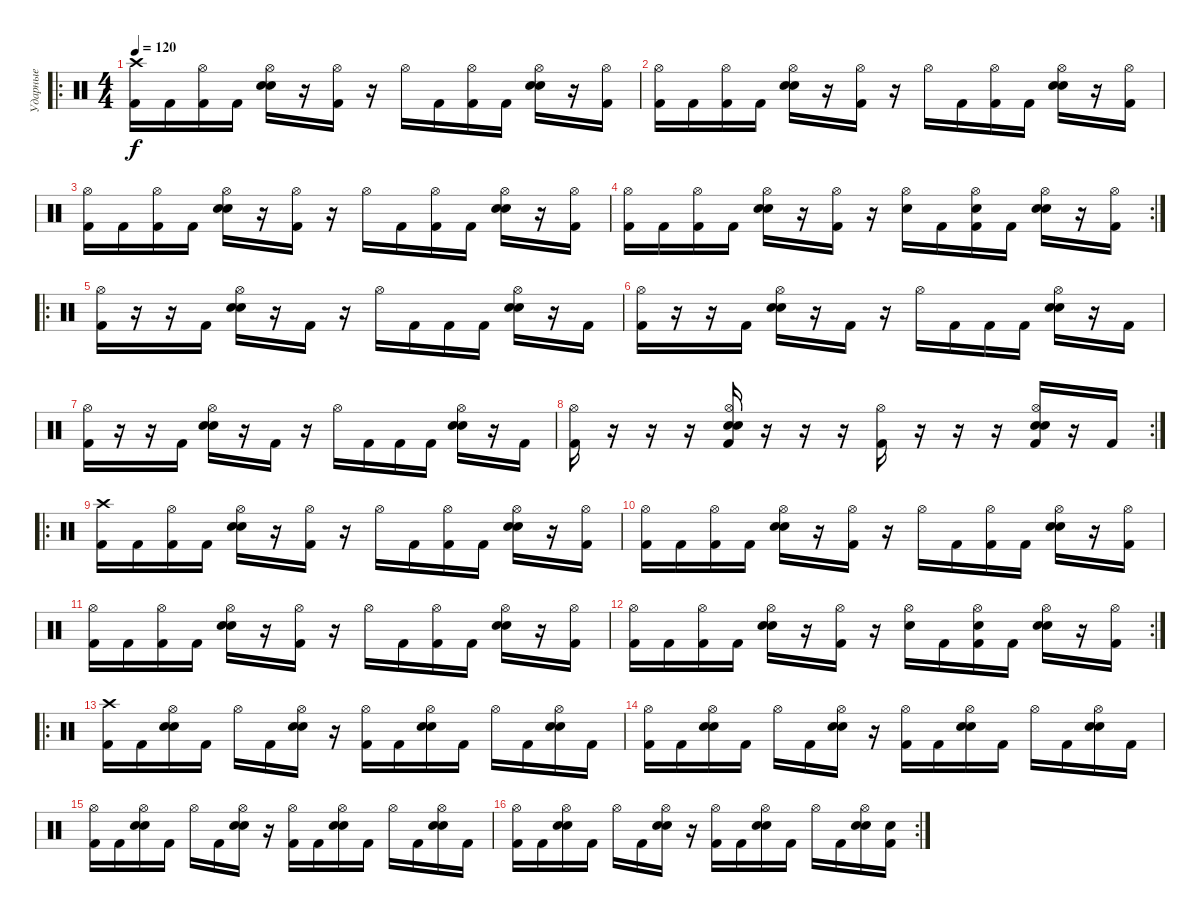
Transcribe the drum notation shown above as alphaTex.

\track ("Ударные" "Ударные") {instrument percussion}
\staff {score}
\articulation defaults
\ro
\ts (4 4)
\tempo 120
\clef neutral
\ks c
("Crash high (hit)" "Kick (hit) 2").16{dy f} "Kick (hit) 2".16 ("Hi-Hat (open)" "Kick (hit) 2").16 "Kick (hit) 2".16 ("Hi-Hat (open)" "Electric Snare (hit)" "Snare (hit) 2").16 r.16 ("Hi-Hat (open)" "Kick (hit) 2").16 r.16 "Hi-Hat (open)".16 "Kick (hit) 2".16 ("Hi-Hat (open)" "Kick (hit) 2").16 "Kick (hit) 2".16 ("Hi-Hat (open)" "Electric Snare (hit)" "Snare (hit) 2").16 r.16 ("Hi-Hat (open)" "Kick (hit) 2").16 |
("Hi-Hat (open)" "Kick (hit) 2").16 "Kick (hit) 2".16 ("Hi-Hat (open)" "Kick (hit) 2").16 "Kick (hit) 2".16 ("Hi-Hat (open)" "Electric Snare (hit)" "Snare (hit) 2").16 r.16 ("Hi-Hat (open)" "Kick (hit) 2").16 r.16 "Hi-Hat (open)".16 "Kick (hit) 2".16 ("Hi-Hat (open)" "Kick (hit) 2").16 "Kick (hit) 2".16 ("Hi-Hat (open)" "Electric Snare (hit)" "Snare (hit) 2").16 r.16 ("Hi-Hat (open)" "Kick (hit) 2").16 |
("Hi-Hat (open)" "Kick (hit) 2").16 "Kick (hit) 2".16 ("Hi-Hat (open)" "Kick (hit) 2").16 "Kick (hit) 2".16 ("Hi-Hat (open)" "Electric Snare (hit)" "Snare (hit) 2").16 r.16 ("Hi-Hat (open)" "Kick (hit) 2").16 r.16 "Hi-Hat (open)".16 "Kick (hit) 2".16 ("Hi-Hat (open)" "Kick (hit) 2").16 "Kick (hit) 2".16 ("Hi-Hat (open)" "Electric Snare (hit)" "Snare (hit) 2").16 r.16 ("Hi-Hat (open)" "Kick (hit) 2").16 |
\rc 2
("Hi-Hat (open)" "Kick (hit) 2").16 "Kick (hit) 2".16 ("Hi-Hat (open)" "Kick (hit) 2").16 "Kick (hit) 2".16 ("Hi-Hat (open)" "Electric Snare (hit)" "Snare (hit) 2").16 r.16 ("Hi-Hat (open)" "Kick (hit) 2").16 r.16 ("Hi-Hat (open)" "Electric Snare (hit)").16 "Kick (hit) 2".16 ("Hi-Hat (open)" "Kick (hit) 2" "Electric Snare (hit)").16 "Kick (hit) 2".16 ("Hi-Hat (open)" "Electric Snare (hit)" "Snare (hit) 2").16 r.16 ("Hi-Hat (open)" "Kick (hit) 2").16 |
\ro
("Hi-Hat (open)" "Kick (hit) 2").16 r.16 r.16 "Kick (hit) 2".16 ("Hi-Hat (open)" "Electric Snare (hit)" "Snare (hit) 2").16 r.16 "Kick (hit) 2".16 r.16 "Hi-Hat (open)".16 "Kick (hit) 2".16 "Kick (hit) 2".16 "Kick (hit) 2".16 ("Hi-Hat (open)" "Electric Snare (hit)" "Snare (hit) 2").16 r.16 "Kick (hit) 2".16 |
("Hi-Hat (open)" "Kick (hit) 2").16 r.16 r.16 "Kick (hit) 2".16 ("Hi-Hat (open)" "Electric Snare (hit)" "Snare (hit) 2").16 r.16 "Kick (hit) 2".16 r.16 "Hi-Hat (open)".16 "Kick (hit) 2".16 "Kick (hit) 2".16 "Kick (hit) 2".16 ("Hi-Hat (open)" "Electric Snare (hit)" "Snare (hit) 2").16 r.16 "Kick (hit) 2".16 |
("Hi-Hat (open)" "Kick (hit) 2").16 r.16 r.16 "Kick (hit) 2".16 ("Hi-Hat (open)" "Electric Snare (hit)" "Snare (hit) 2").16 r.16 "Kick (hit) 2".16 r.16 "Hi-Hat (open)".16 "Kick (hit) 2".16 "Kick (hit) 2".16 "Kick (hit) 2".16 ("Hi-Hat (open)" "Electric Snare (hit)" "Snare (hit) 2").16 r.16 "Kick (hit) 2".16 |
\rc 2
("Hi-Hat (open)" "Kick (hit) 2").16 r.16 r.16 r.16 ("Hi-Hat (open)" "Electric Snare (hit)" "Snare (hit) 2" "Kick (hit) 2").16 r.16 r.16 r.16 ("Hi-Hat (open)" "Kick (hit) 2").16 r.16 r.16 r.16 ("Hi-Hat (open)" "Electric Snare (hit)" "Snare (hit) 2" "Kick (hit) 2").16 r.16 "Kick (hit) 2".16 |
\ro
("Crash high (hit)" "Kick (hit) 2").16 "Kick (hit) 2".16 ("Hi-Hat (open)" "Kick (hit) 2").16 "Kick (hit) 2".16 ("Hi-Hat (open)" "Electric Snare (hit)" "Snare (hit) 2").16 r.16 ("Hi-Hat (open)" "Kick (hit) 2").16 r.16 "Hi-Hat (open)".16 "Kick (hit) 2".16 ("Hi-Hat (open)" "Kick (hit) 2").16 "Kick (hit) 2".16 ("Hi-Hat (open)" "Electric Snare (hit)" "Snare (hit) 2").16 r.16 ("Hi-Hat (open)" "Kick (hit) 2").16 |
("Hi-Hat (open)" "Kick (hit) 2").16 "Kick (hit) 2".16 ("Hi-Hat (open)" "Kick (hit) 2").16 "Kick (hit) 2".16 ("Hi-Hat (open)" "Electric Snare (hit)" "Snare (hit) 2").16 r.16 ("Hi-Hat (open)" "Kick (hit) 2").16 r.16 "Hi-Hat (open)".16 "Kick (hit) 2".16 ("Hi-Hat (open)" "Kick (hit) 2").16 "Kick (hit) 2".16 ("Hi-Hat (open)" "Electric Snare (hit)" "Snare (hit) 2").16 r.16 ("Hi-Hat (open)" "Kick (hit) 2").16 |
("Hi-Hat (open)" "Kick (hit) 2").16 "Kick (hit) 2".16 ("Hi-Hat (open)" "Kick (hit) 2").16 "Kick (hit) 2".16 ("Hi-Hat (open)" "Electric Snare (hit)" "Snare (hit) 2").16 r.16 ("Hi-Hat (open)" "Kick (hit) 2").16 r.16 "Hi-Hat (open)".16 "Kick (hit) 2".16 ("Hi-Hat (open)" "Kick (hit) 2").16 "Kick (hit) 2".16 ("Hi-Hat (open)" "Electric Snare (hit)" "Snare (hit) 2").16 r.16 ("Hi-Hat (open)" "Kick (hit) 2").16 |
\rc 2
("Hi-Hat (open)" "Kick (hit) 2").16 "Kick (hit) 2".16 ("Hi-Hat (open)" "Kick (hit) 2").16 "Kick (hit) 2".16 ("Hi-Hat (open)" "Electric Snare (hit)" "Snare (hit) 2").16 r.16 ("Hi-Hat (open)" "Kick (hit) 2").16 r.16 ("Hi-Hat (open)" "Electric Snare (hit)").16 "Kick (hit) 2".16 ("Hi-Hat (open)" "Kick (hit) 2" "Electric Snare (hit)").16 "Kick (hit) 2".16 ("Hi-Hat (open)" "Electric Snare (hit)" "Snare (hit) 2").16 r.16 ("Hi-Hat (open)" "Kick (hit) 2").16 |
\ro
("Crash high (hit)" "Kick (hit) 2").16 "Kick (hit) 2".16 ("Hi-Hat (open)" "Electric Snare (hit)" "Snare (hit) 2").16 "Kick (hit) 2".16 "Hi-Hat (open)".16 "Kick (hit) 2".16 ("Hi-Hat (open)" "Electric Snare (hit)" "Snare (hit) 2").16 r.16 ("Hi-Hat (open)" "Kick (hit) 2").16 "Kick (hit) 2".16 ("Hi-Hat (open)" "Electric Snare (hit)" "Snare (hit) 2").16 "Kick (hit) 2".16 "Hi-Hat (open)".16 "Kick (hit) 2".16 ("Hi-Hat (open)" "Electric Snare (hit)" "Snare (hit) 2").16 "Kick (hit) 2".16 |
("Hi-Hat (open)" "Kick (hit) 2").16 "Kick (hit) 2".16 ("Hi-Hat (open)" "Electric Snare (hit)" "Snare (hit) 2").16 "Kick (hit) 2".16 "Hi-Hat (open)".16 "Kick (hit) 2".16 ("Hi-Hat (open)" "Electric Snare (hit)" "Snare (hit) 2").16 r.16 ("Hi-Hat (open)" "Kick (hit) 2").16 "Kick (hit) 2".16 ("Hi-Hat (open)" "Electric Snare (hit)" "Snare (hit) 2").16 "Kick (hit) 2".16 "Hi-Hat (open)".16 "Kick (hit) 2".16 ("Hi-Hat (open)" "Electric Snare (hit)" "Snare (hit) 2").16 "Kick (hit) 2".16 |
("Hi-Hat (open)" "Kick (hit) 2").16 "Kick (hit) 2".16 ("Hi-Hat (open)" "Electric Snare (hit)" "Snare (hit) 2").16 "Kick (hit) 2".16 "Hi-Hat (open)".16 "Kick (hit) 2".16 ("Hi-Hat (open)" "Electric Snare (hit)" "Snare (hit) 2").16 r.16 ("Hi-Hat (open)" "Kick (hit) 2").16 "Kick (hit) 2".16 ("Hi-Hat (open)" "Electric Snare (hit)" "Snare (hit) 2").16 "Kick (hit) 2".16 "Hi-Hat (open)".16 "Kick (hit) 2".16 ("Hi-Hat (open)" "Electric Snare (hit)" "Snare (hit) 2").16 "Kick (hit) 2".16 |
\rc 2
("Hi-Hat (open)" "Kick (hit) 2").16 "Kick (hit) 2".16 ("Hi-Hat (open)" "Electric Snare (hit)" "Snare (hit) 2").16 "Kick (hit) 2".16 "Hi-Hat (open)".16 "Kick (hit) 2".16 ("Hi-Hat (open)" "Electric Snare (hit)" "Snare (hit) 2").16 r.16 ("Hi-Hat (open)" "Kick (hit) 2").16 "Kick (hit) 2".16 ("Hi-Hat (open)" "Electric Snare (hit)" "Snare (hit) 2").16 "Kick (hit) 2".16 "Hi-Hat (open)".16 "Kick (hit) 2".16 ("Hi-Hat (open)" "Electric Snare (hit)" "Snare (hit) 2").16 ("Kick (hit) 2" "Electric Snare (hit)").16
